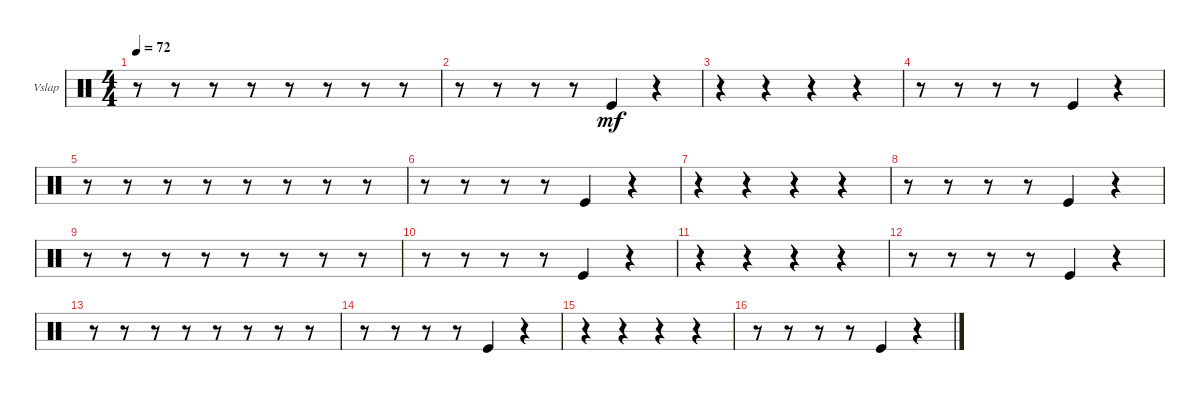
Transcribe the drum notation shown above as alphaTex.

\defaultSystemsLayout 4
\bracketExtendMode groupsimilarinstruments
\firstSystemTrackNameOrientation horizontal
\otherSystemsTrackNameOrientation horizontal
\track ("Vibraslap" "Vslap") {instrument percussion}
\staff {score}
\articulation defaults
\ts (4 4)
\tempo 72
\clef neutral
\scale
0.472222
\ks c
r.8{dy mf} r.8 r.8 r.8 r.8 r.8 r.8 r.8 |
\scale
0.263889 r.8 r.8 r.8 r.8 "Kick (hit)".4 r.4 |
\scale
0.263889 r.4 r.4 r.4 r.4 |
\scale
0.333333 r.8 r.8 r.8 r.8 "Kick (hit)".4 r.4 |
\scale
0.333333 r.8 r.8 r.8 r.8 r.8 r.8 r.8 r.8 |
\scale
0.333333 r.8 r.8 r.8 r.8 "Kick (hit)".4 r.4 |
\scale
0.333333 r.4 r.4 r.4 r.4 |
\scale
0.333333 r.8 r.8 r.8 r.8 "Kick (hit)".4 r.4 |
\scale
0.333333 r.8 r.8 r.8 r.8 r.8 r.8 r.8 r.8 |
\scale
0.333333 r.8 r.8 r.8 r.8 "Kick (hit)".4 r.4 |
\scale
0.333333 r.4 r.4 r.4 r.4 |
\scale
0.333333 r.8 r.8 r.8 r.8 "Kick (hit)".4 r.4 |
\scale
0.333333 r.8 r.8 r.8 r.8 r.8 r.8 r.8 r.8 |
\scale
0.333333 r.8 r.8 r.8 r.8 "Kick (hit)".4 r.4 |
\scale
0.333333 r.4 r.4 r.4 r.4 |
\scale
0.333333 r.8 r.8 r.8 r.8 "Kick (hit)".4 r.4
